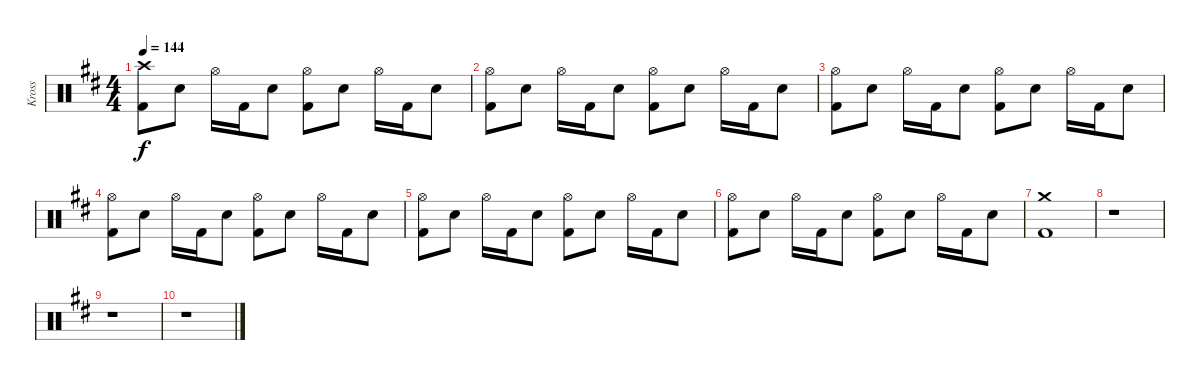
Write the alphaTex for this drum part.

\track ("Kross" "Kross") {instrument percussion}
\staff {score}
\articulation defaults
\ts (4 4)
\tempo 144
\clef neutral
\ks d
("Crash high (hit)" "Kick (hit) 2").8{dy f} "Electric Snare (hit)".8 "Hi-Hat (open)".16 "Kick (hit) 2".16 "Electric Snare (hit)".8 ("Hi-Hat (open)" "Kick (hit) 2").8 "Electric Snare (hit)".8 "Hi-Hat (open)".16 "Kick (hit) 2".16 "Electric Snare (hit)".8 |
("Hi-Hat (open)" "Kick (hit) 2").8 "Electric Snare (hit)".8 "Hi-Hat (open)".16 "Kick (hit) 2".16 "Electric Snare (hit)".8 ("Hi-Hat (open)" "Kick (hit) 2").8 "Electric Snare (hit)".8 "Hi-Hat (open)".16 "Kick (hit) 2".16 "Electric Snare (hit)".8 |
("Hi-Hat (open)" "Kick (hit) 2").8 "Electric Snare (hit)".8 "Hi-Hat (open)".16 "Kick (hit) 2".16 "Electric Snare (hit)".8 ("Hi-Hat (open)" "Kick (hit) 2").8 "Electric Snare (hit)".8 "Hi-Hat (open)".16 "Kick (hit) 2".16 "Electric Snare (hit)".8 |
("Hi-Hat (open)" "Kick (hit) 2").8 "Electric Snare (hit)".8 "Hi-Hat (open)".16 "Kick (hit) 2".16 "Electric Snare (hit)".8 ("Hi-Hat (open)" "Kick (hit) 2").8 "Electric Snare (hit)".8 "Hi-Hat (open)".16 "Kick (hit) 2".16 "Electric Snare (hit)".8 |
("Hi-Hat (open)" "Kick (hit) 2").8 "Electric Snare (hit)".8 "Hi-Hat (open)".16 "Kick (hit) 2".16 "Electric Snare (hit)".8 ("Hi-Hat (open)" "Kick (hit) 2").8 "Electric Snare (hit)".8 "Hi-Hat (open)".16 "Kick (hit) 2".16 "Electric Snare (hit)".8 |
("Hi-Hat (open)" "Kick (hit) 2").8 "Electric Snare (hit)".8 "Hi-Hat (open)".16 "Kick (hit) 2".16 "Electric Snare (hit)".8 ("Hi-Hat (open)" "Kick (hit) 2").8 "Electric Snare (hit)".8 "Hi-Hat (open)".16 "Kick (hit) 2".16 "Electric Snare (hit)".8 |
("Crash medium (hit)" "Kick (hit) 2").1 |
r.1 |
r.1 |
r.1
